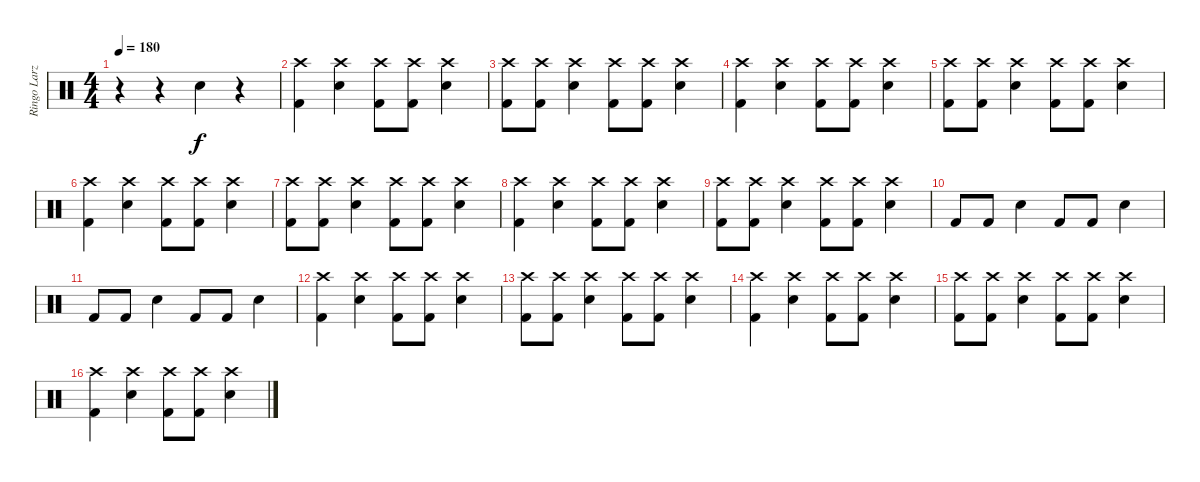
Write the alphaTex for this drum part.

\track ("Ringo Larz" "Ringo Larz") {instrument percussion}
\staff {score}
\articulation defaults
\ts (4 4)
\tempo 180
\clef neutral
\ks c
r.4{dy f} r.4 "Snare (hit) 2".4 r.4 |
("Crash high (hit)" "Kick (hit) 2").4 ("Crash high (hit)" "Snare (hit) 2").4 ("Crash high (hit)" "Kick (hit) 2").8 ("Crash high (hit)" "Kick (hit) 2").8 ("Crash high (hit)" "Snare (hit) 2").4 |
("Crash high (hit)" "Kick (hit) 2").8 ("Crash high (hit)" "Kick (hit) 2").8 ("Crash high (hit)" "Snare (hit) 2").4 ("Crash high (hit)" "Kick (hit) 2").8 ("Crash high (hit)" "Kick (hit) 2").8 ("Crash high (hit)" "Snare (hit) 2").4 |
("Crash high (hit)" "Kick (hit) 2").4 ("Crash high (hit)" "Snare (hit) 2").4 ("Crash high (hit)" "Kick (hit) 2").8 ("Crash high (hit)" "Kick (hit) 2").8 ("Crash high (hit)" "Snare (hit) 2").4 |
("Crash high (hit)" "Kick (hit) 2").8 ("Crash high (hit)" "Kick (hit) 2").8 ("Crash high (hit)" "Snare (hit) 2").4 ("Crash high (hit)" "Kick (hit) 2").8 ("Crash high (hit)" "Kick (hit) 2").8 ("Crash high (hit)" "Snare (hit) 2").4 |
("Crash high (hit)" "Kick (hit) 2").4 ("Crash high (hit)" "Snare (hit) 2").4 ("Crash high (hit)" "Kick (hit) 2").8 ("Crash high (hit)" "Kick (hit) 2").8 ("Crash high (hit)" "Snare (hit) 2").4 |
("Crash high (hit)" "Kick (hit) 2").8 ("Crash high (hit)" "Kick (hit) 2").8 ("Crash high (hit)" "Snare (hit) 2").4 ("Crash high (hit)" "Kick (hit) 2").8 ("Crash high (hit)" "Kick (hit) 2").8 ("Crash high (hit)" "Snare (hit) 2").4 |
("Crash high (hit)" "Kick (hit) 2").4 ("Crash high (hit)" "Snare (hit) 2").4 ("Crash high (hit)" "Kick (hit) 2").8 ("Crash high (hit)" "Kick (hit) 2").8 ("Crash high (hit)" "Snare (hit) 2").4 |
("Crash high (hit)" "Kick (hit) 2").8 ("Crash high (hit)" "Kick (hit) 2").8 ("Crash high (hit)" "Snare (hit) 2").4 ("Crash high (hit)" "Kick (hit) 2").8 ("Crash high (hit)" "Kick (hit) 2").8 ("Crash high (hit)" "Snare (hit) 2").4 |
"Kick (hit) 2".8 "Kick (hit) 2".8 "Snare (hit) 2".4 "Kick (hit) 2".8 "Kick (hit) 2".8 "Snare (hit) 2".4 |
"Kick (hit) 2".8 "Kick (hit) 2".8 "Snare (hit) 2".4 "Kick (hit) 2".8 "Kick (hit) 2".8 "Snare (hit) 2".4 |
("Crash high (hit)" "Kick (hit) 2").4 ("Crash high (hit)" "Snare (hit) 2").4 ("Crash high (hit)" "Kick (hit) 2").8 ("Crash high (hit)" "Kick (hit) 2").8 ("Crash high (hit)" "Snare (hit) 2").4 |
("Crash high (hit)" "Kick (hit) 2").8 ("Crash high (hit)" "Kick (hit) 2").8 ("Crash high (hit)" "Snare (hit) 2").4 ("Crash high (hit)" "Kick (hit) 2").8 ("Crash high (hit)" "Kick (hit) 2").8 ("Crash high (hit)" "Snare (hit) 2").4 |
("Crash high (hit)" "Kick (hit) 2").4 ("Crash high (hit)" "Snare (hit) 2").4 ("Crash high (hit)" "Kick (hit) 2").8 ("Crash high (hit)" "Kick (hit) 2").8 ("Crash high (hit)" "Snare (hit) 2").4 |
("Crash high (hit)" "Kick (hit) 2").8 ("Crash high (hit)" "Kick (hit) 2").8 ("Crash high (hit)" "Snare (hit) 2").4 ("Crash high (hit)" "Kick (hit) 2").8 ("Crash high (hit)" "Kick (hit) 2").8 ("Crash high (hit)" "Snare (hit) 2").4 |
("Crash high (hit)" "Kick (hit) 2").4 ("Crash high (hit)" "Snare (hit) 2").4 ("Crash high (hit)" "Kick (hit) 2").8 ("Crash high (hit)" "Kick (hit) 2").8 ("Crash high (hit)" "Snare (hit) 2").4
